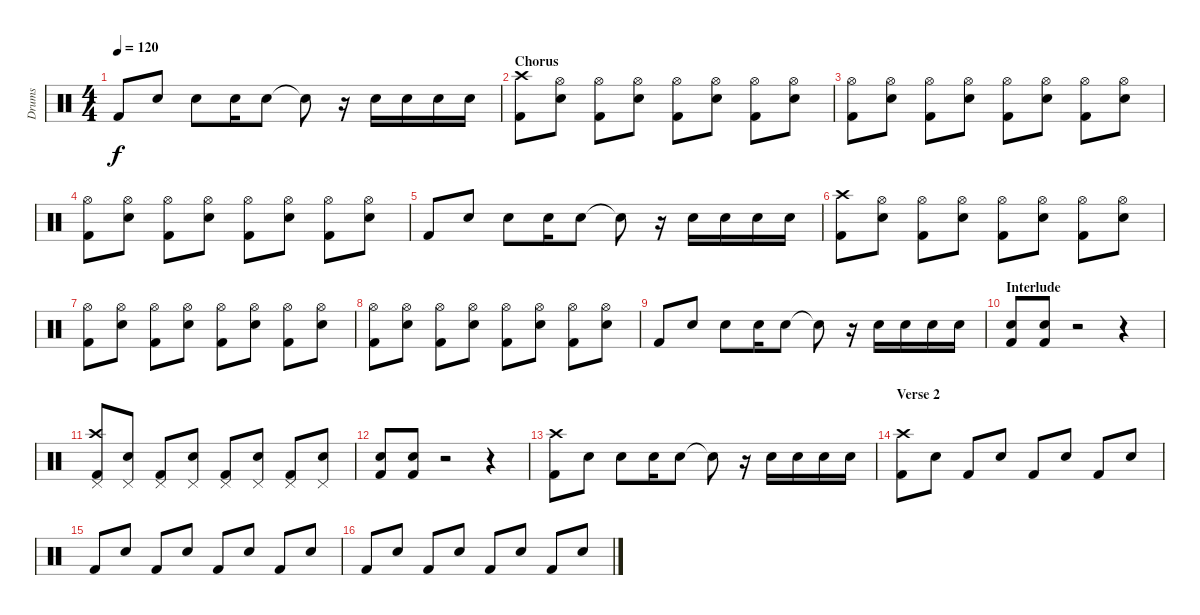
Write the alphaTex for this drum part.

\track ("Drums" "Drums") {instrument percussion}
\staff {score}
\articulation defaults
\ts (4 4)
\tempo 120
\clef neutral
\ks c "Kick (hit) 2".8{dy f} "Snare (hit) 2".8 "Snare (hit) 2".8 "Snare (hit) 2".16 "Snare (hit) 2".8 "Snare (hit)"{t}.8
r.16 "Snare (hit) 2".16 "Snare (hit) 2".16 "Snare (hit) 2".16 "Snare (hit) 2".16 |
\section ("" "Chorus")
("Crash high (hit)" "Kick (hit) 2").8 ("Hi-Hat (open)" "Snare (hit) 2").8 ("Hi-Hat (open)" "Kick (hit) 2").8 ("Hi-Hat (open)" "Snare (hit) 2").8 ("Hi-Hat (open)" "Kick (hit) 2").8 ("Hi-Hat (open)" "Snare (hit) 2").8 ("Hi-Hat (open)" "Kick (hit) 2").8 ("Hi-Hat (open)" "Snare (hit) 2").8 |
("Hi-Hat (open)" "Kick (hit) 2").8 ("Hi-Hat (open)" "Snare (hit) 2").8 ("Hi-Hat (open)" "Kick (hit) 2").8 ("Hi-Hat (open)" "Snare (hit) 2").8 ("Hi-Hat (open)" "Kick (hit) 2").8 ("Hi-Hat (open)" "Snare (hit) 2").8 ("Hi-Hat (open)" "Kick (hit) 2").8 ("Hi-Hat (open)" "Snare (hit) 2").8 |
("Hi-Hat (open)" "Kick (hit) 2").8 ("Hi-Hat (open)" "Snare (hit) 2").8 ("Hi-Hat (open)" "Kick (hit) 2").8 ("Hi-Hat (open)" "Snare (hit) 2").8 ("Hi-Hat (open)" "Kick (hit) 2").8 ("Hi-Hat (open)" "Snare (hit) 2").8 ("Hi-Hat (open)" "Kick (hit) 2").8 ("Hi-Hat (open)" "Snare (hit) 2").8 |
"Kick (hit) 2".8 "Snare (hit) 2".8 "Snare (hit) 2".8 "Snare (hit) 2".16 "Snare (hit) 2".8 "Snare (hit)"{t}.8 r.16 "Snare (hit) 2".16 "Snare (hit) 2".16 "Snare (hit) 2".16 "Snare (hit) 2".16 |
("Crash high (hit)" "Kick (hit) 2").8 ("Hi-Hat (open)" "Snare (hit) 2").8 ("Hi-Hat (open)" "Kick (hit) 2").8 ("Hi-Hat (open)" "Snare (hit) 2").8 ("Hi-Hat (open)" "Kick (hit) 2").8 ("Hi-Hat (open)" "Snare (hit) 2").8 ("Hi-Hat (open)" "Kick (hit) 2").8 ("Hi-Hat (open)" "Snare (hit) 2").8 |
("Hi-Hat (open)" "Kick (hit) 2").8 ("Hi-Hat (open)" "Snare (hit) 2").8 ("Hi-Hat (open)" "Kick (hit) 2").8 ("Hi-Hat (open)" "Snare (hit) 2").8 ("Hi-Hat (open)" "Kick (hit) 2").8 ("Hi-Hat (open)" "Snare (hit) 2").8 ("Hi-Hat (open)" "Kick (hit) 2").8 ("Hi-Hat (open)" "Snare (hit) 2").8 |
("Hi-Hat (open)" "Kick (hit) 2").8 ("Hi-Hat (open)" "Snare (hit) 2").8 ("Hi-Hat (open)" "Kick (hit) 2").8 ("Hi-Hat (open)" "Snare (hit) 2").8 ("Hi-Hat (open)" "Kick (hit) 2").8 ("Hi-Hat (open)" "Snare (hit) 2").8 ("Hi-Hat (open)" "Kick (hit) 2").8 ("Hi-Hat (open)" "Snare (hit) 2").8 |
"Kick (hit) 2".8 "Snare (hit) 2".8 "Snare (hit) 2".8 "Snare (hit) 2".16 "Snare (hit) 2".8 "Snare (hit)"{t}.8 r.16 "Snare (hit) 2".16 "Snare (hit) 2".16 "Snare (hit) 2".16 "Snare (hit) 2".16 |
\section ("" "Interlude")
("Snare (hit) 2" "Kick (hit) 2").8 ("Snare (hit) 2" "Kick (hit) 2").8 r.2 r.4 |
("Crash high (hit)" "Pedal Hi-Hat (hit)" "Kick (hit) 2").8 ("Pedal Hi-Hat (hit)" "Snare (hit) 2").8 ("Pedal Hi-Hat (hit)" "Kick (hit) 2").8 ("Pedal Hi-Hat (hit)" "Snare (hit) 2").8 ("Pedal Hi-Hat (hit)" "Kick (hit) 2").8 ("Pedal Hi-Hat (hit)" "Snare (hit) 2").8 ("Pedal Hi-Hat (hit)" "Kick (hit) 2").8 ("Pedal Hi-Hat (hit)" "Snare (hit) 2").8 |
("Snare (hit) 2" "Kick (hit) 2").8 ("Snare (hit) 2" "Kick (hit) 2").8 r.2 r.4 |
("Crash high (hit)" "Kick (hit) 2").8 "Snare (hit) 2".8 "Snare (hit) 2".8 "Snare (hit) 2".16 "Snare (hit) 2".8 "Snare (hit)"{t}.8 r.16 "Snare (hit) 2".16 "Snare (hit) 2".16 "Snare (hit) 2".16 "Snare (hit) 2".16 |
\section ("" "Verse 2")
("Crash high (hit)" "Kick (hit) 2").8 "Snare (hit) 2".8 "Kick (hit) 2".8 "Snare (hit) 2".8 "Kick (hit) 2".8 "Snare (hit) 2".8 "Kick (hit) 2".8 "Snare (hit) 2".8 |
"Kick (hit) 2".8 "Snare (hit) 2".8 "Kick (hit) 2".8 "Snare (hit) 2".8 "Kick (hit) 2".8 "Snare (hit) 2".8 "Kick (hit) 2".8 "Snare (hit) 2".8 |
"Kick (hit) 2".8 "Snare (hit) 2".8 "Kick (hit) 2".8 "Snare (hit) 2".8 "Kick (hit) 2".8 "Snare (hit) 2".8 "Kick (hit) 2".8 "Snare (hit) 2".8
